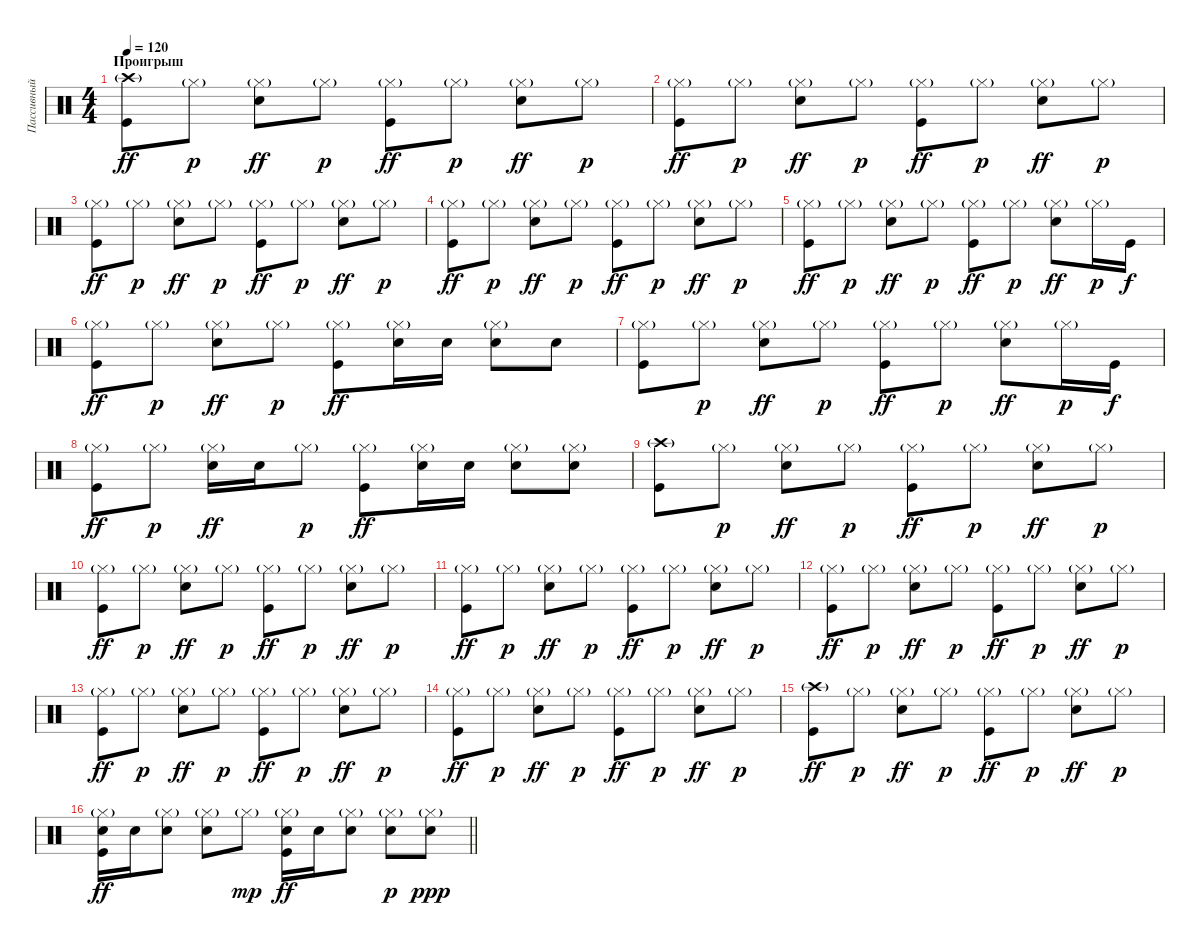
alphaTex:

\track ("Пассивный ударник" "Пассивный ") {instrument percussion}
\staff {score}
\articulation defaults
\ts (4 4)
\section ("" "Проигрыш")
\tempo 120
\clef neutral
\ks c
("Crash high (hit)"{g} "Kick (hit)").8{dy ff} "Hi-Hat (closed)"{g}.8{dy p} ("Hi-Hat (closed)"{g} "Electric Snare (hit)").8{dy ff} "Hi-Hat (closed)"{g}.8{dy p} ("Hi-Hat (closed)"{g} "Kick (hit)").8{dy ff} "Hi-Hat (closed)"{g}.8{dy p} ("Hi-Hat (closed)"{g} "Electric Snare (hit)").8{dy ff} "Hi-Hat (closed)"{g}.8{dy p} |
("Hi-Hat (closed)"{g} "Kick (hit)").8{dy ff} "Hi-Hat (closed)"{g}.8{dy p} ("Hi-Hat (closed)"{g} "Electric Snare (hit)").8{dy ff} "Hi-Hat (closed)"{g}.8{dy p} ("Hi-Hat (closed)"{g} "Kick (hit)").8{dy ff} "Hi-Hat (closed)"{g}.8{dy p} ("Hi-Hat (closed)"{g} "Electric Snare (hit)").8{dy ff} "Hi-Hat (closed)"{g}.8{dy p} |
("Hi-Hat (closed)"{g} "Kick (hit)").8{dy ff} "Hi-Hat (closed)"{g}.8{dy p} ("Hi-Hat (closed)"{g} "Electric Snare (hit)").8{dy ff} "Hi-Hat (closed)"{g}.8{dy p} ("Hi-Hat (closed)"{g} "Kick (hit)").8{dy ff} "Hi-Hat (closed)"{g}.8{dy p} ("Hi-Hat (closed)"{g} "Electric Snare (hit)").8{dy ff} "Hi-Hat (closed)"{g}.8{dy p} |
("Hi-Hat (closed)"{g} "Kick (hit)").8{dy ff} "Hi-Hat (closed)"{g}.8{dy p} ("Hi-Hat (closed)"{g} "Electric Snare (hit)").8{dy ff} "Hi-Hat (closed)"{g}.8{dy p} ("Hi-Hat (closed)"{g} "Kick (hit)").8{dy ff} "Hi-Hat (closed)"{g}.8{dy p} ("Hi-Hat (closed)"{g} "Electric Snare (hit)").8{dy ff} "Hi-Hat (closed)"{g}.8{dy p} |
("Hi-Hat (closed)"{g} "Kick (hit)").8{dy ff} "Hi-Hat (closed)"{g}.8{dy p} ("Hi-Hat (closed)"{g} "Electric Snare (hit)").8{dy ff} "Hi-Hat (closed)"{g}.8{dy p} ("Hi-Hat (closed)"{g} "Kick (hit)").8{dy ff} "Hi-Hat (closed)"{g}.8{dy p} ("Hi-Hat (closed)"{g} "Electric Snare (hit)").8{dy ff} "Hi-Hat (closed)"{g}.16{dy p} "Kick (hit)".16{dy f} |
("Hi-Hat (closed)"{g} "Kick (hit)").8{dy ff} "Hi-Hat (closed)"{g}.8{dy p} ("Hi-Hat (closed)"{g} "Electric Snare (hit)").8{dy ff} "Hi-Hat (closed)"{g}.8{dy p} ("Hi-Hat (closed)"{g} "Kick (hit)").8{dy ff} ("Hi-Hat (closed)"{g} "Electric Snare (hit)").16 "Electric Snare (hit)".16 ("Hi-Hat (closed)"{g} "Electric Snare (hit)").8 "Electric Snare (hit)".8 |
("Hi-Hat (closed)"{g} "Kick (hit)").8 "Hi-Hat (closed)"{g}.8{dy p} ("Hi-Hat (closed)"{g} "Electric Snare (hit)").8{dy ff} "Hi-Hat (closed)"{g}.8{dy p} ("Hi-Hat (closed)"{g} "Kick (hit)").8{dy ff} "Hi-Hat (closed)"{g}.8{dy p} ("Hi-Hat (closed)"{g} "Electric Snare (hit)").8{dy ff} "Hi-Hat (closed)"{g}.16{dy p} "Kick (hit)".16{dy f} |
("Hi-Hat (closed)"{g} "Kick (hit)").8{dy ff} "Hi-Hat (closed)"{g}.8{dy p} ("Hi-Hat (closed)"{g} "Electric Snare (hit)").16{dy ff} "Electric Snare (hit)".16 "Hi-Hat (closed)"{g}.8{dy p} ("Hi-Hat (closed)"{g} "Kick (hit)").8{dy ff} ("Hi-Hat (closed)"{g} "Electric Snare (hit)").16 "Electric Snare (hit)".16 ("Hi-Hat (closed)"{g} "Electric Snare (hit)").8 ("Hi-Hat (closed)"{g} "Electric Snare (hit)").8 |
("Crash high (hit)"{g} "Kick (hit)").8 "Hi-Hat (closed)"{g}.8{dy p} ("Hi-Hat (closed)"{g} "Electric Snare (hit)").8{dy ff} "Hi-Hat (closed)"{g}.8{dy p} ("Hi-Hat (closed)"{g} "Kick (hit)").8{dy ff} "Hi-Hat (closed)"{g}.8{dy p} ("Hi-Hat (closed)"{g} "Electric Snare (hit)").8{dy ff} "Hi-Hat (closed)"{g}.8{dy p} |
("Hi-Hat (closed)"{g} "Kick (hit)").8{dy ff} "Hi-Hat (closed)"{g}.8{dy p} ("Hi-Hat (closed)"{g} "Electric Snare (hit)").8{dy ff} "Hi-Hat (closed)"{g}.8{dy p} ("Hi-Hat (closed)"{g} "Kick (hit)").8{dy ff} "Hi-Hat (closed)"{g}.8{dy p} ("Hi-Hat (closed)"{g} "Electric Snare (hit)").8{dy ff} "Hi-Hat (closed)"{g}.8{dy p} |
("Hi-Hat (closed)"{g} "Kick (hit)").8{dy ff} "Hi-Hat (closed)"{g}.8{dy p} ("Hi-Hat (closed)"{g} "Electric Snare (hit)").8{dy ff} "Hi-Hat (closed)"{g}.8{dy p} ("Hi-Hat (closed)"{g} "Kick (hit)").8{dy ff} "Hi-Hat (closed)"{g}.8{dy p} ("Hi-Hat (closed)"{g} "Electric Snare (hit)").8{dy ff} "Hi-Hat (closed)"{g}.8{dy p} |
("Hi-Hat (closed)"{g} "Kick (hit)").8{dy ff} "Hi-Hat (closed)"{g}.8{dy p} ("Hi-Hat (closed)"{g} "Electric Snare (hit)").8{dy ff} "Hi-Hat (closed)"{g}.8{dy p} ("Hi-Hat (closed)"{g} "Kick (hit)").8{dy ff} "Hi-Hat (closed)"{g}.8{dy p} ("Hi-Hat (closed)"{g} "Electric Snare (hit)").8{dy ff} "Hi-Hat (closed)"{g}.8{dy p} |
("Hi-Hat (closed)"{g} "Kick (hit)").8{dy ff} "Hi-Hat (closed)"{g}.8{dy p} ("Hi-Hat (closed)"{g} "Electric Snare (hit)").8{dy ff} "Hi-Hat (closed)"{g}.8{dy p} ("Hi-Hat (closed)"{g} "Kick (hit)").8{dy ff} "Hi-Hat (closed)"{g}.8{dy p} ("Hi-Hat (closed)"{g} "Electric Snare (hit)").8{dy ff} "Hi-Hat (closed)"{g}.8{dy p} |
("Hi-Hat (closed)"{g} "Kick (hit)").8{dy ff} "Hi-Hat (closed)"{g}.8{dy p} ("Hi-Hat (closed)"{g} "Electric Snare (hit)").8{dy ff} "Hi-Hat (closed)"{g}.8{dy p} ("Hi-Hat (closed)"{g} "Kick (hit)").8{dy ff} "Hi-Hat (closed)"{g}.8{dy p} ("Hi-Hat (closed)"{g} "Electric Snare (hit)").8{dy ff} "Hi-Hat (closed)"{g}.8{dy p} |
("Crash high (hit)"{g} "Kick (hit)").8{dy ff} "Hi-Hat (closed)"{g}.8{dy p} ("Hi-Hat (closed)"{g} "Electric Snare (hit)").8{dy ff} "Hi-Hat (closed)"{g}.8{dy p} ("Hi-Hat (closed)"{g} "Kick (hit)").8{dy ff} "Hi-Hat (closed)"{g}.8{dy p} ("Hi-Hat (closed)"{g} "Electric Snare (hit)").8{dy ff} "Hi-Hat (closed)"{g}.8{dy p} |
\barLineRight lightlight
("Hi-Hat (closed)"{g} "Electric Snare (hit)" "Kick (hit)").16{dy ff} "Electric Snare (hit)".16 ("Hi-Hat (closed)"{g} "Electric Snare (hit)").8 ("Hi-Hat (closed)"{g} "Electric Snare (hit)").8 "Hi-Hat (closed)"{g}.8{dy mp} ("Hi-Hat (closed)"{g} "Electric Snare (hit)" "Kick (hit)").16{dy ff} "Electric Snare (hit)".16 ("Hi-Hat (closed)"{g} "Electric Snare (hit)").8 ("Hi-Hat (closed)"{g} "Electric Snare (hit)").8{dy p} ("Hi-Hat (closed)"{g} "Electric Snare (hit)").8{dy ppp}
